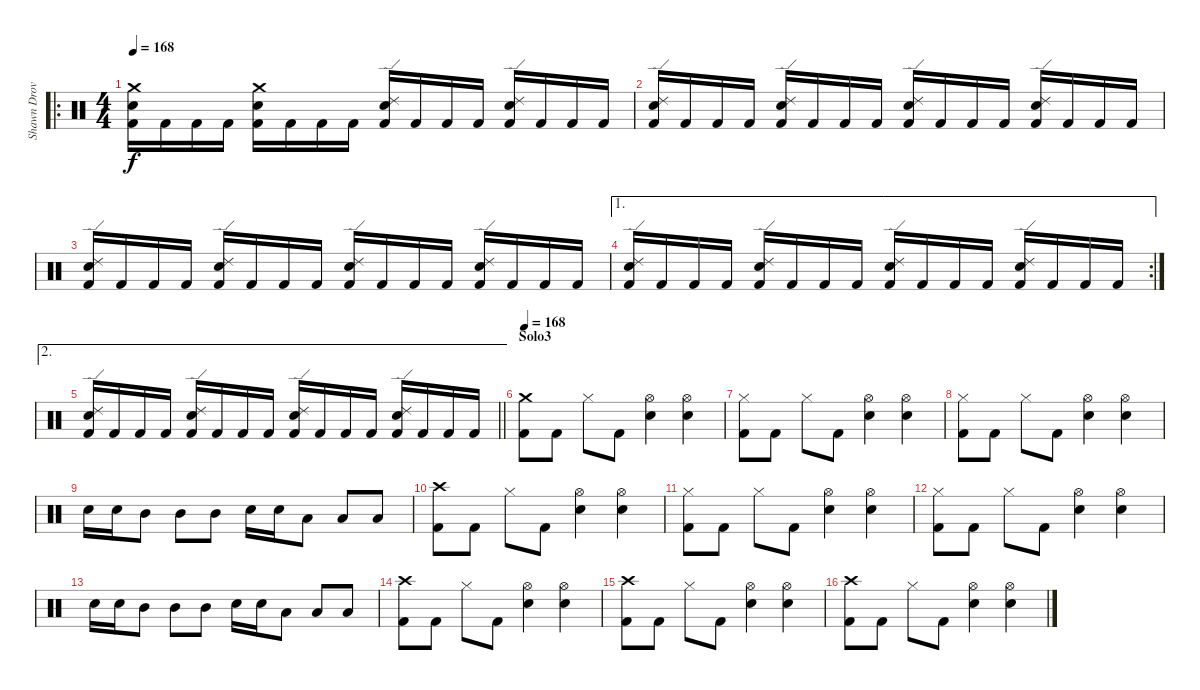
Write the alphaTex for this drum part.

\track ("Shawn Drover" "Shawn Drov") {instrument percussion}
\staff {score}
\articulation defaults
\ro
\ts (4 4)
\tempo 168
\clef neutral
\ks c
("Crash medium (hit)" "Electric Snare (hit)" "Kick (hit) 2").16{dy f} "Kick (hit) 2".16 "Kick (hit) 2".16 "Kick (hit) 2".16 ("Crash medium (hit)" "Electric Snare (hit)" "Kick (hit) 2").16 "Kick (hit) 2".16 "Kick (hit) 2".16 "Kick (hit) 2".16 ("Ride (edge) 2" "Electric Snare (hit)" "Kick (hit) 2").16 "Kick (hit) 2".16 "Kick (hit) 2".16 "Kick (hit) 2".16 ("Ride (edge) 2" "Electric Snare (hit)" "Kick (hit) 2").16 "Kick (hit) 2".16 "Kick (hit) 2".16 "Kick (hit) 2".16 |
("Ride (edge) 2" "Electric Snare (hit)" "Kick (hit) 2").16 "Kick (hit) 2".16 "Kick (hit) 2".16 "Kick (hit) 2".16 ("Ride (edge) 2" "Electric Snare (hit)" "Kick (hit) 2").16 "Kick (hit) 2".16 "Kick (hit) 2".16 "Kick (hit) 2".16 ("Ride (edge) 2" "Electric Snare (hit)" "Kick (hit) 2").16 "Kick (hit) 2".16 "Kick (hit) 2".16 "Kick (hit) 2".16 ("Ride (edge) 2" "Electric Snare (hit)" "Kick (hit) 2").16 "Kick (hit) 2".16 "Kick (hit) 2".16 "Kick (hit) 2".16 |
("Ride (edge) 2" "Electric Snare (hit)" "Kick (hit) 2").16 "Kick (hit) 2".16 "Kick (hit) 2".16 "Kick (hit) 2".16 ("Ride (edge) 2" "Electric Snare (hit)" "Kick (hit) 2").16 "Kick (hit) 2".16 "Kick (hit) 2".16 "Kick (hit) 2".16 ("Ride (edge) 2" "Electric Snare (hit)" "Kick (hit) 2").16 "Kick (hit) 2".16 "Kick (hit) 2".16 "Kick (hit) 2".16 ("Ride (edge) 2" "Electric Snare (hit)" "Kick (hit) 2").16 "Kick (hit) 2".16 "Kick (hit) 2".16 "Kick (hit) 2".16 |
\ae 1
\rc 2
("Ride (edge) 2" "Electric Snare (hit)" "Kick (hit) 2").16 "Kick (hit) 2".16 "Kick (hit) 2".16 "Kick (hit) 2".16 ("Ride (edge) 2" "Electric Snare (hit)" "Kick (hit) 2").16 "Kick (hit) 2".16 "Kick (hit) 2".16 "Kick (hit) 2".16 ("Ride (edge) 2" "Electric Snare (hit)" "Kick (hit) 2").16 "Kick (hit) 2".16 "Kick (hit) 2".16 "Kick (hit) 2".16 ("Ride (edge) 2" "Electric Snare (hit)" "Kick (hit) 2").16 "Kick (hit) 2".16 "Kick (hit) 2".16 "Kick (hit) 2".16 |
\ae 2
\barLineRight lightlight
("Ride (edge) 2" "Electric Snare (hit)" "Kick (hit) 2").16 "Kick (hit) 2".16 "Kick (hit) 2".16 "Kick (hit) 2".16 ("Ride (edge) 2" "Electric Snare (hit)" "Kick (hit) 2").16 "Kick (hit) 2".16 "Kick (hit) 2".16 "Kick (hit) 2".16 ("Ride (edge) 2" "Electric Snare (hit)" "Kick (hit) 2").16 "Kick (hit) 2".16 "Kick (hit) 2".16 "Kick (hit) 2".16 ("Ride (edge) 2" "Electric Snare (hit)" "Kick (hit) 2").16 "Kick (hit) 2".16 "Kick (hit) 2".16 "Kick (hit) 2".16 |
\section ("" "Solo3")
\tempo 168
("Crash medium (hit)" "Kick (hit) 2").8 "Kick (hit) 2".8 "Hi-Hat (closed)".8 "Kick (hit) 2".8 ("Hi-Hat (open)" "Electric Snare (hit)").4 ("Hi-Hat (open)" "Electric Snare (hit)").4 |
("Hi-Hat (closed)" "Kick (hit) 2").8 "Kick (hit) 2".8 "Hi-Hat (closed)".8 "Kick (hit) 2".8 ("Hi-Hat (open)" "Electric Snare (hit)").4 ("Hi-Hat (open)" "Electric Snare (hit)").4 |
("Hi-Hat (closed)" "Kick (hit) 2").8 "Kick (hit) 2".8 "Hi-Hat (closed)".8 "Kick (hit) 2".8 ("Hi-Hat (open)" "Electric Snare (hit)").4 ("Hi-Hat (open)" "Electric Snare (hit)").4 |
"Electric Snare (hit)".16 "Electric Snare (hit)".16 "Mid Tom (hit)".8 "Mid Tom (hit)".8 "Mid Tom (hit)".8 "Electric Snare (hit)".16 "Electric Snare (hit)".16 "Low Tom (hit)".8 "Low Tom (hit)".8 "Low Tom (hit)".8 |
("Crash high (hit)" "Kick (hit) 2").8 "Kick (hit) 2".8 "Hi-Hat (closed)".8 "Kick (hit) 2".8 ("Hi-Hat (open)" "Electric Snare (hit)").4 ("Hi-Hat (open)" "Electric Snare (hit)").4 |
("Hi-Hat (closed)" "Kick (hit) 2").8 "Kick (hit) 2".8 "Hi-Hat (closed)".8 "Kick (hit) 2".8 ("Hi-Hat (open)" "Electric Snare (hit)").4 ("Hi-Hat (open)" "Electric Snare (hit)").4 |
("Hi-Hat (closed)" "Kick (hit) 2").8 "Kick (hit) 2".8 "Hi-Hat (closed)".8 "Kick (hit) 2".8 ("Hi-Hat (open)" "Electric Snare (hit)").4 ("Hi-Hat (open)" "Electric Snare (hit)").4 |
"Electric Snare (hit)".16 "Electric Snare (hit)".16 "Mid Tom (hit)".8 "Mid Tom (hit)".8 "Mid Tom (hit)".8 "Electric Snare (hit)".16 "Electric Snare (hit)".16 "Low Tom (hit)".8 "Low Tom (hit)".8 "Low Tom (hit)".8 |
("Crash high (hit)" "Kick (hit) 2").8 "Kick (hit) 2".8 "Hi-Hat (closed)".8 "Kick (hit) 2".8 ("Hi-Hat (open)" "Electric Snare (hit)").4 ("Hi-Hat (open)" "Electric Snare (hit)").4 |
("Crash high (hit)" "Kick (hit) 2").8 "Kick (hit) 2".8 "Hi-Hat (closed)".8 "Kick (hit) 2".8 ("Hi-Hat (open)" "Electric Snare (hit)").4 ("Hi-Hat (open)" "Electric Snare (hit)").4 |
("Crash high (hit)" "Kick (hit) 2").8 "Kick (hit) 2".8 "Hi-Hat (closed)".8 "Kick (hit) 2".8 ("Hi-Hat (open)" "Electric Snare (hit)").4 ("Hi-Hat (open)" "Electric Snare (hit)").4
